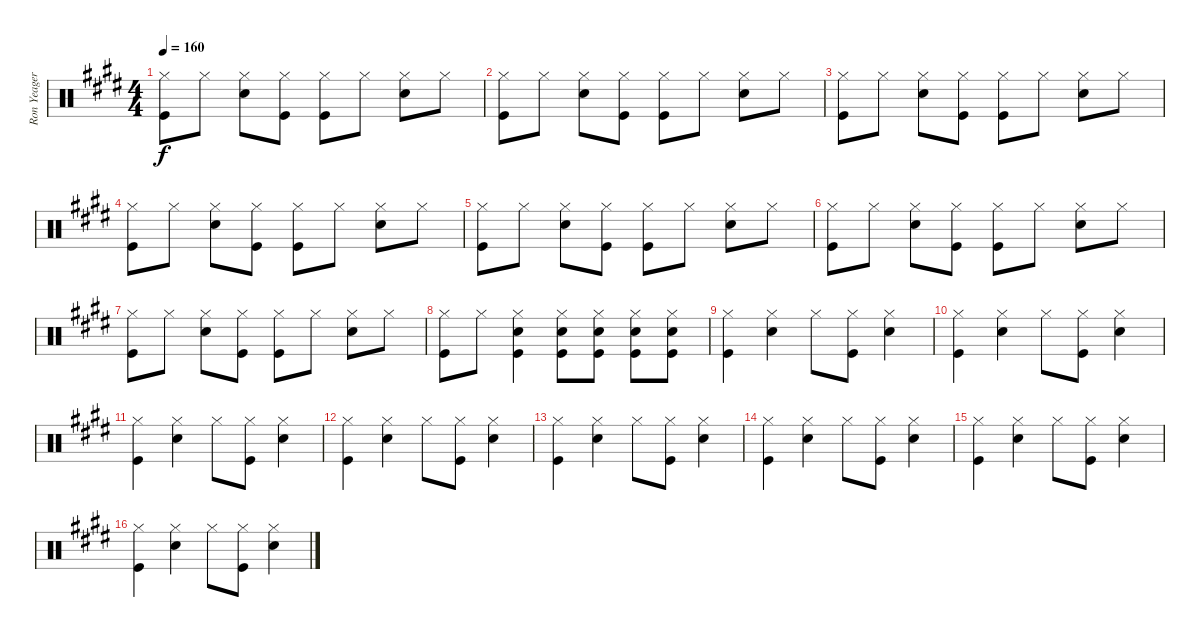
\track ("Ron Yeager Drums" "Ron Yeager") {instrument percussion}
\staff {score}
\articulation defaults
\ts (4 4)
\tempo 160
\clef neutral
\ks e
("Hi-Hat (closed)" "Kick (hit)").8{dy f} "Hi-Hat (closed)".8 ("Hi-Hat (closed)" "Snare (hit) 2").8 ("Hi-Hat (closed)" "Kick (hit)").8 ("Hi-Hat (closed)" "Kick (hit)").8 "Hi-Hat (closed)".8 ("Hi-Hat (closed)" "Snare (hit) 2").8 "Hi-Hat (closed)".8 |
("Hi-Hat (closed)" "Kick (hit)").8 "Hi-Hat (closed)".8 ("Hi-Hat (closed)" "Snare (hit) 2").8 ("Hi-Hat (closed)" "Kick (hit)").8 ("Hi-Hat (closed)" "Kick (hit)").8 "Hi-Hat (closed)".8 ("Hi-Hat (closed)" "Snare (hit) 2").8 "Hi-Hat (closed)".8 |
("Hi-Hat (closed)" "Kick (hit)").8 "Hi-Hat (closed)".8 ("Hi-Hat (closed)" "Snare (hit) 2").8 ("Hi-Hat (closed)" "Kick (hit)").8 ("Hi-Hat (closed)" "Kick (hit)").8 "Hi-Hat (closed)".8 ("Hi-Hat (closed)" "Snare (hit) 2").8 "Hi-Hat (closed)".8 |
("Hi-Hat (closed)" "Kick (hit)").8 "Hi-Hat (closed)".8 ("Hi-Hat (closed)" "Snare (hit) 2").8 ("Hi-Hat (closed)" "Kick (hit)").8 ("Hi-Hat (closed)" "Kick (hit)").8 "Hi-Hat (closed)".8 ("Hi-Hat (closed)" "Snare (hit) 2").8 "Hi-Hat (closed)".8 |
("Hi-Hat (closed)" "Kick (hit)").8 "Hi-Hat (closed)".8 ("Hi-Hat (closed)" "Snare (hit) 2").8 ("Hi-Hat (closed)" "Kick (hit)").8 ("Hi-Hat (closed)" "Kick (hit)").8 "Hi-Hat (closed)".8 ("Hi-Hat (closed)" "Snare (hit) 2").8 "Hi-Hat (closed)".8 |
("Hi-Hat (closed)" "Kick (hit)").8 "Hi-Hat (closed)".8 ("Hi-Hat (closed)" "Snare (hit) 2").8 ("Hi-Hat (closed)" "Kick (hit)").8 ("Hi-Hat (closed)" "Kick (hit)").8 "Hi-Hat (closed)".8 ("Hi-Hat (closed)" "Snare (hit) 2").8 "Hi-Hat (closed)".8 |
("Hi-Hat (closed)" "Kick (hit)").8 "Hi-Hat (closed)".8 ("Hi-Hat (closed)" "Snare (hit) 2").8 ("Hi-Hat (closed)" "Kick (hit)").8 ("Hi-Hat (closed)" "Kick (hit)").8 "Hi-Hat (closed)".8 ("Hi-Hat (closed)" "Snare (hit) 2").8 "Hi-Hat (closed)".8 |
("Hi-Hat (closed)" "Kick (hit)").8 "Hi-Hat (closed)".8 ("Hi-Hat (closed)" "Snare (hit) 2" "Kick (hit)").4 ("Hi-Hat (closed)" "Snare (hit) 2" "Kick (hit)").8 ("Hi-Hat (closed)" "Snare (hit) 2" "Kick (hit)").8 ("Hi-Hat (closed)" "Snare (hit) 2" "Kick (hit)").8 ("Hi-Hat (closed)" "Snare (hit) 2" "Kick (hit)").8 |
("Hi-Hat (closed)" "Kick (hit)").4 ("Hi-Hat (closed)" "Snare (hit) 2").4 "Hi-Hat (closed)".8 ("Hi-Hat (closed)" "Kick (hit)").8 ("Hi-Hat (closed)" "Snare (hit) 2").4 |
("Hi-Hat (closed)" "Kick (hit)").4 ("Hi-Hat (closed)" "Snare (hit) 2").4 "Hi-Hat (closed)".8 ("Hi-Hat (closed)" "Kick (hit)").8 ("Hi-Hat (closed)" "Snare (hit) 2").4 |
("Hi-Hat (closed)" "Kick (hit)").4 ("Hi-Hat (closed)" "Snare (hit) 2").4 "Hi-Hat (closed)".8 ("Hi-Hat (closed)" "Kick (hit)").8 ("Hi-Hat (closed)" "Snare (hit) 2").4 |
("Hi-Hat (closed)" "Kick (hit)").4 ("Hi-Hat (closed)" "Snare (hit) 2").4 "Hi-Hat (closed)".8 ("Hi-Hat (closed)" "Kick (hit)").8 ("Hi-Hat (closed)" "Snare (hit) 2").4 |
("Hi-Hat (closed)" "Kick (hit)").4 ("Hi-Hat (closed)" "Snare (hit) 2").4 "Hi-Hat (closed)".8 ("Hi-Hat (closed)" "Kick (hit)").8 ("Hi-Hat (closed)" "Snare (hit) 2").4 |
("Hi-Hat (closed)" "Kick (hit)").4 ("Hi-Hat (closed)" "Snare (hit) 2").4 "Hi-Hat (closed)".8 ("Hi-Hat (closed)" "Kick (hit)").8 ("Hi-Hat (closed)" "Snare (hit) 2").4 |
("Hi-Hat (closed)" "Kick (hit)").4 ("Hi-Hat (closed)" "Snare (hit) 2").4 "Hi-Hat (closed)".8 ("Hi-Hat (closed)" "Kick (hit)").8 ("Hi-Hat (closed)" "Snare (hit) 2").4 |
("Hi-Hat (closed)" "Kick (hit)").4 ("Hi-Hat (closed)" "Snare (hit) 2").4 "Hi-Hat (closed)".8 ("Hi-Hat (closed)" "Kick (hit)").8 ("Hi-Hat (closed)" "Snare (hit) 2").4
